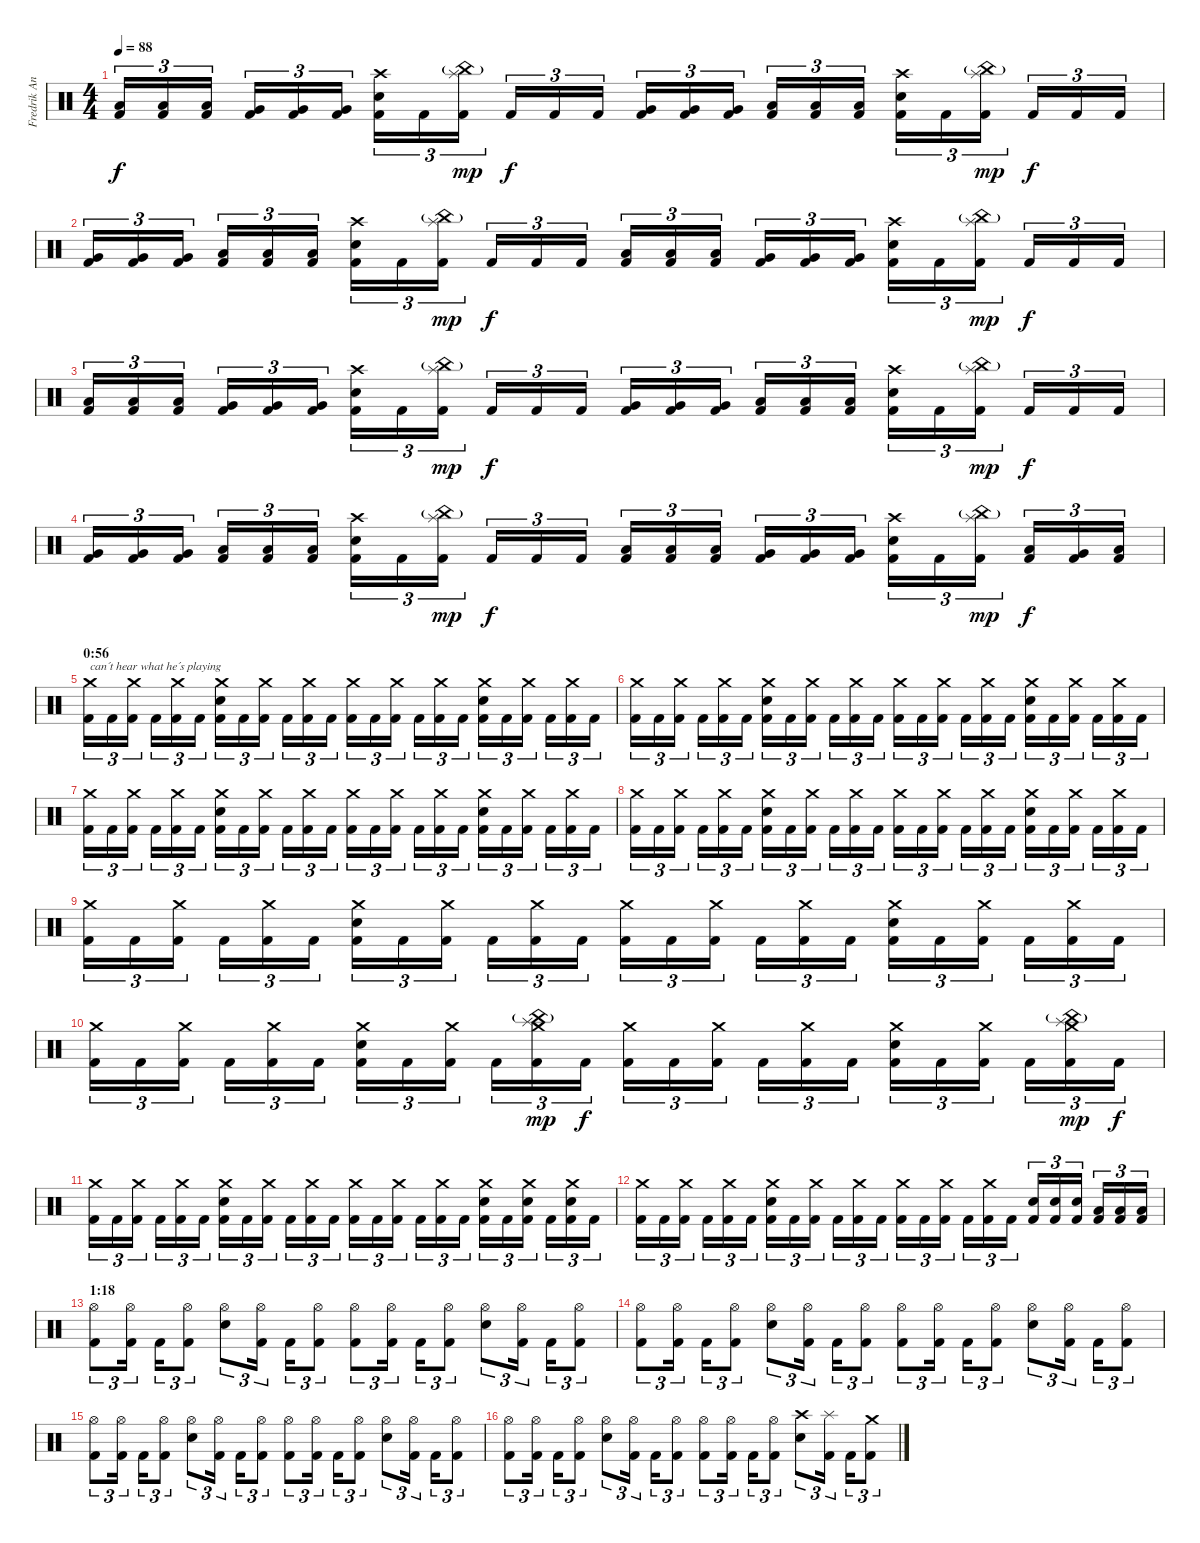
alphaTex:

\track ("Fredrik Andersson" "Fredrik An") {instrument percussion}
\staff {score}
\articulation defaults
\ts (4 4)
\tempo 88
\clef neutral
\ks c
("Low Floor Tom (hit)" "Kick (hit) 2").16{tu (3 2) dy f} ("Low Floor Tom (hit)" "Kick (hit) 2").16{tu (3 2)} ("Low Floor Tom (hit)" "Kick (hit) 2").16{tu (3 2)} ("Very Low Tom (hit)" "Kick (hit) 2").16{tu (3 2)} ("Very Low Tom (hit)" "Kick (hit) 2").16{tu (3 2)} ("Very Low Tom (hit)" "Kick (hit) 2").16{tu (3 2)} ("Crash high (hit)" "Electric Snare (hit)" "Kick (hit) 2").16{tu (3 2)} "Kick (hit) 2".16{tu (3 2)} ("Splash (hit)" "China (hit)"{g} "Kick (hit) 2").16{tu (3 2) dy mp} "Kick (hit) 2".16{tu (3 2) dy f} "Kick (hit) 2".16{tu (3 2)} "Kick (hit) 2".16{tu (3 2)} ("Very Low Tom (hit)" "Kick (hit) 2").16{tu (3 2)} ("Very Low Tom (hit)" "Kick (hit) 2").16{tu (3 2)} ("Very Low Tom (hit)" "Kick (hit) 2").16{tu (3 2)} ("Low Floor Tom (hit)" "Kick (hit) 2").16{tu (3 2)} ("Low Floor Tom (hit)" "Kick (hit) 2").16{tu (3 2)} ("Low Floor Tom (hit)" "Kick (hit) 2").16{tu (3 2)} ("Crash high (hit)" "Electric Snare (hit)" "Kick (hit) 2").16{tu (3 2)} "Kick (hit) 2".16{tu (3 2)} ("Splash (hit)" "China (hit)"{g} "Kick (hit) 2").16{tu (3 2) dy mp} "Kick (hit) 2".16{tu (3 2) dy f} "Kick (hit) 2".16{tu (3 2)} "Kick (hit) 2".16{tu (3 2)} |
("Very Low Tom (hit)" "Kick (hit) 2").16{tu (3 2)} ("Very Low Tom (hit)" "Kick (hit) 2").16{tu (3 2)} ("Very Low Tom (hit)" "Kick (hit) 2").16{tu (3 2)} ("Low Tom (hit)" "Kick (hit) 2").16{tu (3 2)} ("Low Tom (hit)" "Kick (hit) 2").16{tu (3 2)} ("Low Tom (hit)" "Kick (hit) 2").16{tu (3 2)} ("Crash high (hit)" "Electric Snare (hit)" "Kick (hit) 2").16{tu (3 2)} "Kick (hit) 2".16{tu (3 2)} ("Splash (hit)" "China (hit)"{g} "Kick (hit) 2").16{tu (3 2) dy mp} "Kick (hit) 2".16{tu (3 2) dy f} "Kick (hit) 2".16{tu (3 2)} "Kick (hit) 2".16{tu (3 2)} ("Low Tom (hit)" "Kick (hit) 2").16{tu (3 2)} ("Low Tom (hit)" "Kick (hit) 2").16{tu (3 2)} ("Low Tom (hit)" "Kick (hit) 2").16{tu (3 2)} ("Very Low Tom (hit)" "Kick (hit) 2").16{tu (3 2)} ("Very Low Tom (hit)" "Kick (hit) 2").16{tu (3 2)} ("Very Low Tom (hit)" "Kick (hit) 2").16{tu (3 2)} ("Crash high (hit)" "Electric Snare (hit)" "Kick (hit) 2").16{tu (3 2)} "Kick (hit) 2".16{tu (3 2)} ("Splash (hit)" "China (hit)"{g} "Kick (hit) 2").16{tu (3 2) dy mp} "Kick (hit) 2".16{tu (3 2) dy f} "Kick (hit) 2".16{tu (3 2)} "Kick (hit) 2".16{tu (3 2)} |
("Low Floor Tom (hit)" "Kick (hit) 2").16{tu (3 2)} ("Low Floor Tom (hit)" "Kick (hit) 2").16{tu (3 2)} ("Low Floor Tom (hit)" "Kick (hit) 2").16{tu (3 2)} ("Very Low Tom (hit)" "Kick (hit) 2").16{tu (3 2)} ("Very Low Tom (hit)" "Kick (hit) 2").16{tu (3 2)} ("Very Low Tom (hit)" "Kick (hit) 2").16{tu (3 2)} ("Crash high (hit)" "Electric Snare (hit)" "Kick (hit) 2").16{tu (3 2)} "Kick (hit) 2".16{tu (3 2)} ("Splash (hit)" "China (hit)"{g} "Kick (hit) 2").16{tu (3 2) dy mp} "Kick (hit) 2".16{tu (3 2) dy f} "Kick (hit) 2".16{tu (3 2)} "Kick (hit) 2".16{tu (3 2)} ("Very Low Tom (hit)" "Kick (hit) 2").16{tu (3 2)} ("Very Low Tom (hit)" "Kick (hit) 2").16{tu (3 2)} ("Very Low Tom (hit)" "Kick (hit) 2").16{tu (3 2)} ("Low Floor Tom (hit)" "Kick (hit) 2").16{tu (3 2)} ("Low Floor Tom (hit)" "Kick (hit) 2").16{tu (3 2)} ("Low Floor Tom (hit)" "Kick (hit) 2").16{tu (3 2)} ("Crash high (hit)" "Electric Snare (hit)" "Kick (hit) 2").16{tu (3 2)} "Kick (hit) 2".16{tu (3 2)} ("Splash (hit)" "China (hit)"{g} "Kick (hit) 2").16{tu (3 2) dy mp} "Kick (hit) 2".16{tu (3 2) dy f} "Kick (hit) 2".16{tu (3 2)} "Kick (hit) 2".16{tu (3 2)} |
("Very Low Tom (hit)" "Kick (hit) 2").16{tu (3 2)} ("Very Low Tom (hit)" "Kick (hit) 2").16{tu (3 2)} ("Very Low Tom (hit)" "Kick (hit) 2").16{tu (3 2)} ("Low Tom (hit)" "Kick (hit) 2").16{tu (3 2)} ("Low Tom (hit)" "Kick (hit) 2").16{tu (3 2)} ("Low Tom (hit)" "Kick (hit) 2").16{tu (3 2)} ("Crash high (hit)" "Electric Snare (hit)" "Kick (hit) 2").16{tu (3 2)} "Kick (hit) 2".16{tu (3 2)} ("Splash (hit)" "China (hit)"{g} "Kick (hit) 2").16{tu (3 2) dy mp} "Kick (hit) 2".16{tu (3 2) dy f} "Kick (hit) 2".16{tu (3 2)} "Kick (hit) 2".16{tu (3 2)} ("Low Tom (hit)" "Kick (hit) 2").16{tu (3 2)} ("Low Tom (hit)" "Kick (hit) 2").16{tu (3 2)} ("Low Tom (hit)" "Kick (hit) 2").16{tu (3 2)} ("Very Low Tom (hit)" "Kick (hit) 2").16{tu (3 2)} ("Very Low Tom (hit)" "Kick (hit) 2").16{tu (3 2)} ("Very Low Tom (hit)" "Kick (hit) 2").16{tu (3 2)} ("Crash high (hit)" "Electric Snare (hit)" "Kick (hit) 2").16{tu (3 2)} "Kick (hit) 2".16{tu (3 2)} ("Splash (hit)" "China (hit)"{g} "Kick (hit) 2").16{tu (3 2) dy mp} ("Low Tom (hit)" "Kick (hit) 2").16{tu (3 2) dy f} ("Very Low Tom (hit)" "Kick (hit) 2").16{tu (3 2)} ("Low Floor Tom (hit)" "Kick (hit) 2").16{tu (3 2)} |
\section ("" "0:56")
("Crash medium (hit)" "Kick (hit) 2").16{tu (3 2) txt "can´t hear what he´s playing"} "Kick (hit) 2".16{tu (3 2)} ("Crash medium (hit)" "Kick (hit) 2").16{tu (3 2)} "Kick (hit) 2".16{tu (3 2)} ("Crash medium (hit)" "Kick (hit) 2").16{tu (3 2)} "Kick (hit) 2".16{tu (3 2)} ("Crash medium (hit)" "Electric Snare (hit)" "Kick (hit) 2").16{tu (3 2)} "Kick (hit) 2".16{tu (3 2)} ("Crash medium (hit)" "Kick (hit) 2").16{tu (3 2)} "Kick (hit) 2".16{tu (3 2)} ("Crash medium (hit)" "Kick (hit) 2").16{tu (3 2)} "Kick (hit) 2".16{tu (3 2)} ("Crash medium (hit)" "Kick (hit) 2").16{tu (3 2)} "Kick (hit) 2".16{tu (3 2)} ("Crash medium (hit)" "Kick (hit) 2").16{tu (3 2)} "Kick (hit) 2".16{tu (3 2)} ("Crash medium (hit)" "Kick (hit) 2").16{tu (3 2)} "Kick (hit) 2".16{tu (3 2)} ("Crash medium (hit)" "Electric Snare (hit)" "Kick (hit) 2").16{tu (3 2)} "Kick (hit) 2".16{tu (3 2)} ("Crash medium (hit)" "Kick (hit) 2").16{tu (3 2)} "Kick (hit) 2".16{tu (3 2)} ("Crash medium (hit)" "Kick (hit) 2").16{tu (3 2)} "Kick (hit) 2".16{tu (3 2)} |
("Crash medium (hit)" "Kick (hit) 2").16{tu (3 2)} "Kick (hit) 2".16{tu (3 2)} ("Crash medium (hit)" "Kick (hit) 2").16{tu (3 2)} "Kick (hit) 2".16{tu (3 2)} ("Crash medium (hit)" "Kick (hit) 2").16{tu (3 2)} "Kick (hit) 2".16{tu (3 2)} ("Crash medium (hit)" "Electric Snare (hit)" "Kick (hit) 2").16{tu (3 2)} "Kick (hit) 2".16{tu (3 2)} ("Crash medium (hit)" "Kick (hit) 2").16{tu (3 2)} "Kick (hit) 2".16{tu (3 2)} ("Crash medium (hit)" "Kick (hit) 2").16{tu (3 2)} "Kick (hit) 2".16{tu (3 2)} ("Crash medium (hit)" "Kick (hit) 2").16{tu (3 2)} "Kick (hit) 2".16{tu (3 2)} ("Crash medium (hit)" "Kick (hit) 2").16{tu (3 2)} "Kick (hit) 2".16{tu (3 2)} ("Crash medium (hit)" "Kick (hit) 2").16{tu (3 2)} "Kick (hit) 2".16{tu (3 2)} ("Crash medium (hit)" "Electric Snare (hit)" "Kick (hit) 2").16{tu (3 2)} "Kick (hit) 2".16{tu (3 2)} ("Crash medium (hit)" "Kick (hit) 2").16{tu (3 2)} "Kick (hit) 2".16{tu (3 2)} ("Crash medium (hit)" "Kick (hit) 2").16{tu (3 2)} "Kick (hit) 2".16{tu (3 2)} |
("Crash medium (hit)" "Kick (hit) 2").16{tu (3 2)} "Kick (hit) 2".16{tu (3 2)} ("Crash medium (hit)" "Kick (hit) 2").16{tu (3 2)} "Kick (hit) 2".16{tu (3 2)} ("Crash medium (hit)" "Kick (hit) 2").16{tu (3 2)} "Kick (hit) 2".16{tu (3 2)} ("Crash medium (hit)" "Electric Snare (hit)" "Kick (hit) 2").16{tu (3 2)} "Kick (hit) 2".16{tu (3 2)} ("Crash medium (hit)" "Kick (hit) 2").16{tu (3 2)} "Kick (hit) 2".16{tu (3 2)} ("Crash medium (hit)" "Kick (hit) 2").16{tu (3 2)} "Kick (hit) 2".16{tu (3 2)} ("Crash medium (hit)" "Kick (hit) 2").16{tu (3 2)} "Kick (hit) 2".16{tu (3 2)} ("Crash medium (hit)" "Kick (hit) 2").16{tu (3 2)} "Kick (hit) 2".16{tu (3 2)} ("Crash medium (hit)" "Kick (hit) 2").16{tu (3 2)} "Kick (hit) 2".16{tu (3 2)} ("Crash medium (hit)" "Electric Snare (hit)" "Kick (hit) 2").16{tu (3 2)} "Kick (hit) 2".16{tu (3 2)} ("Crash medium (hit)" "Kick (hit) 2").16{tu (3 2)} "Kick (hit) 2".16{tu (3 2)} ("Crash medium (hit)" "Kick (hit) 2").16{tu (3 2)} "Kick (hit) 2".16{tu (3 2)} |
("Crash medium (hit)" "Kick (hit) 2").16{tu (3 2)} "Kick (hit) 2".16{tu (3 2)} ("Crash medium (hit)" "Kick (hit) 2").16{tu (3 2)} "Kick (hit) 2".16{tu (3 2)} ("Crash medium (hit)" "Kick (hit) 2").16{tu (3 2)} "Kick (hit) 2".16{tu (3 2)} ("Crash medium (hit)" "Electric Snare (hit)" "Kick (hit) 2").16{tu (3 2)} "Kick (hit) 2".16{tu (3 2)} ("Crash medium (hit)" "Kick (hit) 2").16{tu (3 2)} "Kick (hit) 2".16{tu (3 2)} ("Crash medium (hit)" "Kick (hit) 2").16{tu (3 2)} "Kick (hit) 2".16{tu (3 2)} ("Crash medium (hit)" "Kick (hit) 2").16{tu (3 2)} "Kick (hit) 2".16{tu (3 2)} ("Crash medium (hit)" "Kick (hit) 2").16{tu (3 2)} "Kick (hit) 2".16{tu (3 2)} ("Crash medium (hit)" "Kick (hit) 2").16{tu (3 2)} "Kick (hit) 2".16{tu (3 2)} ("Crash medium (hit)" "Electric Snare (hit)" "Kick (hit) 2").16{tu (3 2)} "Kick (hit) 2".16{tu (3 2)} ("Crash medium (hit)" "Kick (hit) 2").16{tu (3 2)} "Kick (hit) 2".16{tu (3 2)} ("Crash medium (hit)" "Kick (hit) 2").16{tu (3 2)} "Kick (hit) 2".16{tu (3 2)} |
("Crash medium (hit)" "Kick (hit) 2").16{tu (3 2)} "Kick (hit) 2".16{tu (3 2)} ("Crash medium (hit)" "Kick (hit) 2").16{tu (3 2)} "Kick (hit) 2".16{tu (3 2)} ("Crash medium (hit)" "Kick (hit) 2").16{tu (3 2)} "Kick (hit) 2".16{tu (3 2)} ("Crash medium (hit)" "Electric Snare (hit)" "Kick (hit) 2").16{tu (3 2)} "Kick (hit) 2".16{tu (3 2)} ("Crash medium (hit)" "Kick (hit) 2").16{tu (3 2)} "Kick (hit) 2".16{tu (3 2)} ("Crash medium (hit)" "Kick (hit) 2").16{tu (3 2)} "Kick (hit) 2".16{tu (3 2)} ("Crash medium (hit)" "Kick (hit) 2").16{tu (3 2)} "Kick (hit) 2".16{tu (3 2)} ("Crash medium (hit)" "Kick (hit) 2").16{tu (3 2)} "Kick (hit) 2".16{tu (3 2)} ("Crash medium (hit)" "Kick (hit) 2").16{tu (3 2)} "Kick (hit) 2".16{tu (3 2)} ("Crash medium (hit)" "Electric Snare (hit)" "Kick (hit) 2").16{tu (3 2)} "Kick (hit) 2".16{tu (3 2)} ("Crash medium (hit)" "Kick (hit) 2").16{tu (3 2)} "Kick (hit) 2".16{tu (3 2)} ("Crash medium (hit)" "Kick (hit) 2").16{tu (3 2)} "Kick (hit) 2".16{tu (3 2)} |
("Crash medium (hit)" "Kick (hit) 2").16{tu (3 2)} "Kick (hit) 2".16{tu (3 2)} ("Crash medium (hit)" "Kick (hit) 2").16{tu (3 2)} "Kick (hit) 2".16{tu (3 2)} ("Crash medium (hit)" "Kick (hit) 2").16{tu (3 2)} "Kick (hit) 2".16{tu (3 2)} ("Crash medium (hit)" "Electric Snare (hit)" "Kick (hit) 2").16{tu (3 2)} "Kick (hit) 2".16{tu (3 2)} ("Crash medium (hit)" "Kick (hit) 2").16{tu (3 2)} "Kick (hit) 2".16{tu (3 2)} ("Crash medium (hit)" "China (hit)"{g} "Splash (hit)" "Kick (hit) 2").16{tu (3 2) dy mp} "Kick (hit) 2".16{tu (3 2) dy f} ("Crash medium (hit)" "Kick (hit) 2").16{tu (3 2)} "Kick (hit) 2".16{tu (3 2)} ("Crash medium (hit)" "Kick (hit) 2").16{tu (3 2)} "Kick (hit) 2".16{tu (3 2)} ("Crash medium (hit)" "Kick (hit) 2").16{tu (3 2)} "Kick (hit) 2".16{tu (3 2)} ("Crash medium (hit)" "Electric Snare (hit)" "Kick (hit) 2").16{tu (3 2)} "Kick (hit) 2".16{tu (3 2)} ("Crash medium (hit)" "Kick (hit) 2").16{tu (3 2)} "Kick (hit) 2".16{tu (3 2)} ("China (hit)"{g} "Splash (hit)" "Crash medium (hit)" "Kick (hit) 2").16{tu (3 2) dy mp} "Kick (hit) 2".16{tu (3 2) dy f} |
("Crash medium (hit)" "Kick (hit) 2").16{tu (3 2)} "Kick (hit) 2".16{tu (3 2)} ("Crash medium (hit)" "Kick (hit) 2").16{tu (3 2)} "Kick (hit) 2".16{tu (3 2)} ("Crash medium (hit)" "Kick (hit) 2").16{tu (3 2)} "Kick (hit) 2".16{tu (3 2)} ("Crash medium (hit)" "Electric Snare (hit)" "Kick (hit) 2").16{tu (3 2)} "Kick (hit) 2".16{tu (3 2)} ("Crash medium (hit)" "Kick (hit) 2").16{tu (3 2)} "Kick (hit) 2".16{tu (3 2)} ("Crash medium (hit)" "Kick (hit) 2").16{tu (3 2)} "Kick (hit) 2".16{tu (3 2)} ("Crash medium (hit)" "Kick (hit) 2").16{tu (3 2)} "Kick (hit) 2".16{tu (3 2)} ("Crash medium (hit)" "Kick (hit) 2").16{tu (3 2)} "Kick (hit) 2".16{tu (3 2)} ("Crash medium (hit)" "Kick (hit) 2").16{tu (3 2)} "Kick (hit) 2".16{tu (3 2)} ("Crash medium (hit)" "Electric Snare (hit)" "Kick (hit) 2").16{tu (3 2)} "Kick (hit) 2".16{tu (3 2)} ("Crash medium (hit)" "Electric Snare (hit)" "Kick (hit) 2").16{tu (3 2)} "Kick (hit) 2".16{tu (3 2)} ("Crash medium (hit)" "Electric Snare (hit)" "Kick (hit) 2").16{tu (3 2)} "Kick (hit) 2".16{tu (3 2)} |
("Crash medium (hit)" "Kick (hit) 2").16{tu (3 2)} "Kick (hit) 2".16{tu (3 2)} ("Crash medium (hit)" "Kick (hit) 2").16{tu (3 2)} "Kick (hit) 2".16{tu (3 2)} ("Crash medium (hit)" "Kick (hit) 2").16{tu (3 2)} "Kick (hit) 2".16{tu (3 2)} ("Crash medium (hit)" "Electric Snare (hit)" "Kick (hit) 2").16{tu (3 2)} "Kick (hit) 2".16{tu (3 2)} ("Crash medium (hit)" "Kick (hit) 2").16{tu (3 2)} "Kick (hit) 2".16{tu (3 2)} ("Crash medium (hit)" "Kick (hit) 2").16{tu (3 2)} "Kick (hit) 2".16{tu (3 2)} ("Crash medium (hit)" "Kick (hit) 2").16{tu (3 2)} "Kick (hit) 2".16{tu (3 2)} ("Crash medium (hit)" "Kick (hit) 2").16{tu (3 2)} "Kick (hit) 2".16{tu (3 2)} ("Crash medium (hit)" "Kick (hit) 2").16{tu (3 2)} "Kick (hit) 2".16{tu (3 2)} ("Electric Snare (hit)" "Kick (hit) 2").16{tu (3 2)} ("Electric Snare (hit)" "Kick (hit) 2").16{tu (3 2)} ("Electric Snare (hit)" "Kick (hit) 2").16{tu (3 2)} ("Low Tom (hit)" "Kick (hit) 2").16{tu (3 2)} ("Low Tom (hit)" "Kick (hit) 2").16{tu (3 2)} ("Low Tom (hit)" "Kick (hit) 2").16{tu (3 2)} |
\section ("" "1:18")
("Hi-Hat (open)" "Kick (hit) 2").8{tu (3 2)} ("Hi-Hat (open)" "Kick (hit) 2").16{tu (3 2)} "Kick (hit) 2".16{tu (3 2)} ("Hi-Hat (open)" "Kick (hit) 2").8{tu (3 2)} ("Hi-Hat (open)" "Electric Snare (hit)").8{tu (3 2)} ("Hi-Hat (open)" "Kick (hit) 2").16{tu (3 2)} "Kick (hit) 2".16{tu (3 2)} ("Hi-Hat (open)" "Kick (hit) 2").8{tu (3 2)} ("Hi-Hat (open)" "Kick (hit) 2").8{tu (3 2)} ("Hi-Hat (open)" "Kick (hit) 2").16{tu (3 2)} "Kick (hit) 2".16{tu (3 2)} ("Hi-Hat (open)" "Kick (hit) 2").8{tu (3 2)} ("Hi-Hat (open)" "Electric Snare (hit)").8{tu (3 2)} ("Hi-Hat (open)" "Kick (hit) 2").16{tu (3 2)} "Kick (hit) 2".16{tu (3 2)} ("Hi-Hat (open)" "Kick (hit) 2").8{tu (3 2)} |
("Hi-Hat (open)" "Kick (hit) 2").8{tu (3 2)} ("Hi-Hat (open)" "Kick (hit) 2").16{tu (3 2)} "Kick (hit) 2".16{tu (3 2)} ("Hi-Hat (open)" "Kick (hit) 2").8{tu (3 2)} ("Hi-Hat (open)" "Electric Snare (hit)").8{tu (3 2)} ("Hi-Hat (open)" "Kick (hit) 2").16{tu (3 2)} "Kick (hit) 2".16{tu (3 2)} ("Hi-Hat (open)" "Kick (hit) 2").8{tu (3 2)} ("Hi-Hat (open)" "Kick (hit) 2").8{tu (3 2)} ("Hi-Hat (open)" "Kick (hit) 2").16{tu (3 2)} "Kick (hit) 2".16{tu (3 2)} ("Hi-Hat (open)" "Kick (hit) 2").8{tu (3 2)} ("Hi-Hat (open)" "Electric Snare (hit)").8{tu (3 2)} ("Hi-Hat (open)" "Kick (hit) 2").16{tu (3 2)} "Kick (hit) 2".16{tu (3 2)} ("Hi-Hat (open)" "Kick (hit) 2").8{tu (3 2)} |
("Hi-Hat (open)" "Kick (hit) 2").8{tu (3 2)} ("Hi-Hat (open)" "Kick (hit) 2").16{tu (3 2)} "Kick (hit) 2".16{tu (3 2)} ("Hi-Hat (open)" "Kick (hit) 2").8{tu (3 2)} ("Hi-Hat (open)" "Electric Snare (hit)").8{tu (3 2)} ("Hi-Hat (open)" "Kick (hit) 2").16{tu (3 2)} "Kick (hit) 2".16{tu (3 2)} ("Hi-Hat (open)" "Kick (hit) 2").8{tu (3 2)} ("Hi-Hat (open)" "Kick (hit) 2").8{tu (3 2)} ("Hi-Hat (open)" "Kick (hit) 2").16{tu (3 2)} "Kick (hit) 2".16{tu (3 2)} ("Hi-Hat (open)" "Kick (hit) 2").8{tu (3 2)} ("Hi-Hat (open)" "Electric Snare (hit)").8{tu (3 2)} ("Hi-Hat (open)" "Kick (hit) 2").16{tu (3 2)} "Kick (hit) 2".16{tu (3 2)} ("Hi-Hat (open)" "Kick (hit) 2").8{tu (3 2)} |
("Hi-Hat (open)" "Kick (hit) 2").8{tu (3 2)} ("Hi-Hat (open)" "Kick (hit) 2").16{tu (3 2)} "Kick (hit) 2".16{tu (3 2)} ("Hi-Hat (open)" "Kick (hit) 2").8{tu (3 2)} ("Hi-Hat (open)" "Electric Snare (hit)").8{tu (3 2)} ("Hi-Hat (open)" "Kick (hit) 2").16{tu (3 2)} "Kick (hit) 2".16{tu (3 2)} ("Hi-Hat (open)" "Kick (hit) 2").8{tu (3 2)} ("Hi-Hat (open)" "Kick (hit) 2").8{tu (3 2)} ("Hi-Hat (open)" "Kick (hit) 2").16{tu (3 2)} "Kick (hit) 2".16{tu (3 2)} ("Hi-Hat (open)" "Kick (hit) 2").8{tu (3 2)} ("Crash high (hit)" "Electric Snare (hit)").8{tu (3 2)} ("Splash (hit)" "Kick (hit) 2").16{tu (3 2)} "Kick (hit) 2".16{tu (3 2)} ("Crash medium (hit)" "Kick (hit) 2").8{tu (3 2)}
